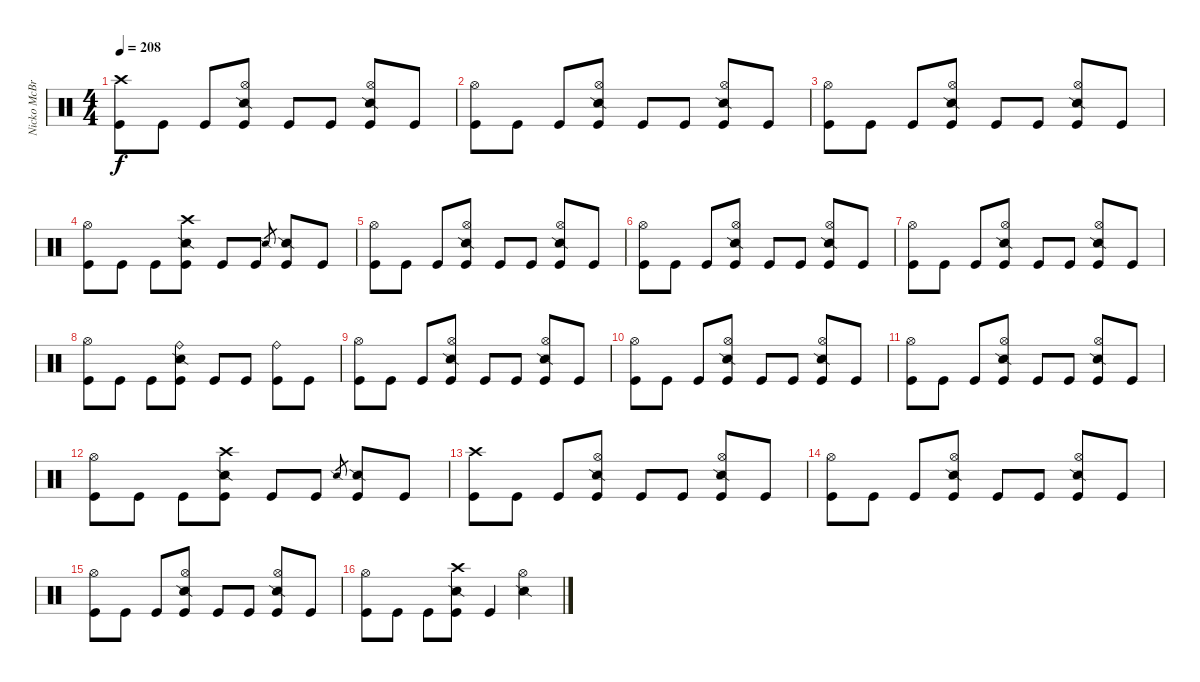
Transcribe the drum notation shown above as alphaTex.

\track ("Nicko McBrain" "Nicko McBr") {instrument percussion}
\staff {score}
\articulation defaults
\ts (4 4)
\tempo 208
\clef neutral
\ks c
("Crash high (hit)" "Kick (hit)").8{dy f} "Kick (hit)".8 "Kick (hit)".8 ("Hi-Hat (open)" "Snare (side stick) 2" "Kick (hit)").8 "Kick (hit)".8 "Kick (hit)".8 ("Hi-Hat (open)" "Snare (side stick) 2" "Kick (hit)").8 "Kick (hit)".8 |
("Hi-Hat (open)" "Kick (hit)").8 "Kick (hit)".8 "Kick (hit)".8 ("Hi-Hat (open)" "Snare (side stick) 2" "Kick (hit)").8 "Kick (hit)".8 "Kick (hit)".8 ("Hi-Hat (open)" "Snare (side stick) 2" "Kick (hit)").8 "Kick (hit)".8 |
("Hi-Hat (open)" "Kick (hit)").8 "Kick (hit)".8 "Kick (hit)".8 ("Hi-Hat (open)" "Snare (side stick) 2" "Kick (hit)").8 "Kick (hit)".8 "Kick (hit)".8 ("Hi-Hat (open)" "Snare (side stick) 2" "Kick (hit)").8 "Kick (hit)".8 |
("Hi-Hat (open)" "Kick (hit)").8 "Kick (hit)".8 "Kick (hit)".8 ("Crash high (hit)" "Snare (side stick) 2" "Kick (hit)").8 "Kick (hit)".8 "Kick (hit)".8 "Snare (side stick) 2".8{gr} ("Snare (side stick) 2" "Kick (hit)").8 "Kick (hit)".8 |
("Hi-Hat (open)" "Kick (hit)").8 "Kick (hit)".8 "Kick (hit)".8 ("Hi-Hat (open)" "Snare (side stick) 2" "Kick (hit)").8 "Kick (hit)".8 "Kick (hit)".8 ("Hi-Hat (open)" "Snare (side stick) 2" "Kick (hit)").8 "Kick (hit)".8 |
("Hi-Hat (open)" "Kick (hit)").8 "Kick (hit)".8 "Kick (hit)".8 ("Hi-Hat (open)" "Snare (side stick) 2" "Kick (hit)").8 "Kick (hit)".8 "Kick (hit)".8 ("Hi-Hat (open)" "Snare (side stick) 2" "Kick (hit)").8 "Kick (hit)".8 |
("Hi-Hat (open)" "Kick (hit)").8 "Kick (hit)".8 "Kick (hit)".8 ("Hi-Hat (open)" "Snare (side stick) 2" "Kick (hit)").8 "Kick (hit)".8 "Kick (hit)".8 ("Hi-Hat (open)" "Snare (side stick) 2" "Kick (hit)").8 "Kick (hit)".8 |
("Hi-Hat (open)" "Kick (hit)").8 "Kick (hit)".8 "Kick (hit)".8 ("Ride (bell)" "Snare (side stick) 2" "Kick (hit)").8 "Kick (hit)".8 "Kick (hit)".8 ("Ride (bell)" "Kick (hit)").8 "Kick (hit)".8 |
("Hi-Hat (open)" "Kick (hit)").8 "Kick (hit)".8 "Kick (hit)".8 ("Hi-Hat (open)" "Snare (side stick) 2" "Kick (hit)").8 "Kick (hit)".8 "Kick (hit)".8 ("Hi-Hat (open)" "Snare (side stick) 2" "Kick (hit)").8 "Kick (hit)".8 |
("Hi-Hat (open)" "Kick (hit)").8 "Kick (hit)".8 "Kick (hit)".8 ("Hi-Hat (open)" "Snare (side stick) 2" "Kick (hit)").8 "Kick (hit)".8 "Kick (hit)".8 ("Hi-Hat (open)" "Snare (side stick) 2" "Kick (hit)").8 "Kick (hit)".8 |
("Hi-Hat (open)" "Kick (hit)").8 "Kick (hit)".8 "Kick (hit)".8 ("Hi-Hat (open)" "Snare (side stick) 2" "Kick (hit)").8 "Kick (hit)".8 "Kick (hit)".8 ("Hi-Hat (open)" "Snare (side stick) 2" "Kick (hit)").8 "Kick (hit)".8 |
("Hi-Hat (open)" "Kick (hit)").8 "Kick (hit)".8 "Kick (hit)".8 ("Crash high (hit)" "Snare (side stick) 2" "Kick (hit)").8 "Kick (hit)".8 "Kick (hit)".8 "Snare (side stick) 2".8{gr} ("Snare (side stick) 2" "Kick (hit)").8 "Kick (hit)".8 |
("Crash high (hit)" "Kick (hit)").8 "Kick (hit)".8 "Kick (hit)".8 ("Hi-Hat (open)" "Snare (side stick) 2" "Kick (hit)").8 "Kick (hit)".8 "Kick (hit)".8 ("Hi-Hat (open)" "Snare (side stick) 2" "Kick (hit)").8 "Kick (hit)".8 |
("Hi-Hat (open)" "Kick (hit)").8 "Kick (hit)".8 "Kick (hit)".8 ("Hi-Hat (open)" "Snare (side stick) 2" "Kick (hit)").8 "Kick (hit)".8 "Kick (hit)".8 ("Hi-Hat (open)" "Snare (side stick) 2" "Kick (hit)").8 "Kick (hit)".8 |
("Hi-Hat (open)" "Kick (hit)").8 "Kick (hit)".8 "Kick (hit)".8 ("Hi-Hat (open)" "Snare (side stick) 2" "Kick (hit)").8 "Kick (hit)".8 "Kick (hit)".8 ("Hi-Hat (open)" "Snare (side stick) 2" "Kick (hit)").8 "Kick (hit)".8 |
("Hi-Hat (open)" "Kick (hit)").8 "Kick (hit)".8 "Kick (hit)".8 ("Crash high (hit)" "Snare (side stick) 2" "Kick (hit)").8 "Kick (hit)".4 ("Hi-Hat (open)" "Snare (side stick) 2").4
